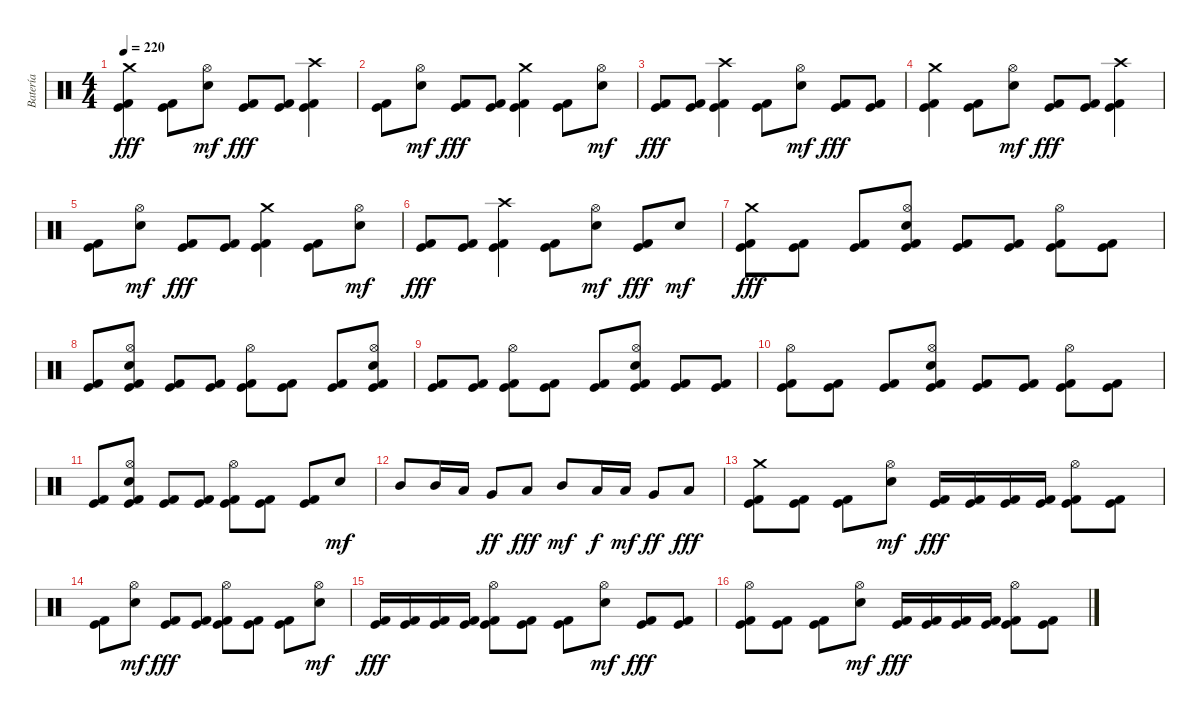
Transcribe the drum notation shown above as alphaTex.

\track ("Batería" "Batería") {instrument percussion}
\staff {score}
\articulation defaults
\ts (4 4)
\tempo 220
\clef neutral
\ks c
("Crash medium (hit)" "Kick (hit) 2" "Kick (hit)").4{dy fff} ("Kick (hit) 2" "Kick (hit)").8 ("Hi-Hat (open)" "Electric Snare (hit)").8{dy mf} ("Kick (hit) 2" "Kick (hit)").8{dy fff} ("Kick (hit) 2" "Kick (hit)").8 ("Crash high (hit)" "Kick (hit) 2" "Kick (hit)").4 |
("Kick (hit) 2" "Kick (hit)").8 ("Hi-Hat (open)" "Electric Snare (hit)").8{dy mf} ("Kick (hit) 2" "Kick (hit)").8{dy fff} ("Kick (hit) 2" "Kick (hit)").8 ("Crash medium (hit)" "Kick (hit) 2" "Kick (hit)").4 ("Kick (hit) 2" "Kick (hit)").8 ("Hi-Hat (open)" "Electric Snare (hit)").8{dy mf} |
("Kick (hit) 2" "Kick (hit)").8{dy fff} ("Kick (hit) 2" "Kick (hit)").8 ("Crash high (hit)" "Kick (hit) 2" "Kick (hit)").4 ("Kick (hit) 2" "Kick (hit)").8 ("Hi-Hat (open)" "Electric Snare (hit)").8{dy mf} ("Kick (hit) 2" "Kick (hit)").8{dy fff} ("Kick (hit) 2" "Kick (hit)").8 |
("Crash medium (hit)" "Kick (hit) 2" "Kick (hit)").4 ("Kick (hit) 2" "Kick (hit)").8 ("Hi-Hat (open)" "Electric Snare (hit)").8{dy mf} ("Kick (hit) 2" "Kick (hit)").8{dy fff} ("Kick (hit) 2" "Kick (hit)").8 ("Crash high (hit)" "Kick (hit) 2" "Kick (hit)").4 |
("Kick (hit) 2" "Kick (hit)").8 ("Hi-Hat (open)" "Electric Snare (hit)").8{dy mf} ("Kick (hit) 2" "Kick (hit)").8{dy fff} ("Kick (hit) 2" "Kick (hit)").8 ("Crash medium (hit)" "Kick (hit) 2" "Kick (hit)").4 ("Kick (hit) 2" "Kick (hit)").8 ("Hi-Hat (open)" "Electric Snare (hit)").8{dy mf} |
("Kick (hit) 2" "Kick (hit)").8{dy fff} ("Kick (hit) 2" "Kick (hit)").8 ("Crash high (hit)" "Kick (hit) 2" "Kick (hit)").4 ("Kick (hit) 2" "Kick (hit)").8 ("Hi-Hat (open)" "Electric Snare (hit)").8{dy mf} ("Kick (hit) 2" "Kick (hit)").8{dy fff} "Electric Snare (hit)".8{dy mf} |
("Crash medium (hit)" "Kick (hit) 2" "Kick (hit)").8{dy fff} ("Kick (hit) 2" "Kick (hit)").8 ("Kick (hit) 2" "Kick (hit)").8 ("Hi-Hat (open)" "Electric Snare (hit)" "Kick (hit) 2" "Kick (hit)").8 ("Kick (hit) 2" "Kick (hit)").8 ("Kick (hit) 2" "Kick (hit)").8 ("Hi-Hat (open)" "Kick (hit) 2" "Kick (hit)").8 ("Kick (hit) 2" "Kick (hit)").8 |
("Kick (hit) 2" "Kick (hit)").8 ("Hi-Hat (open)" "Electric Snare (hit)" "Kick (hit) 2" "Kick (hit)").8 ("Kick (hit) 2" "Kick (hit)").8 ("Kick (hit) 2" "Kick (hit)").8 ("Hi-Hat (open)" "Kick (hit) 2" "Kick (hit)").8 ("Kick (hit) 2" "Kick (hit)").8 ("Kick (hit) 2" "Kick (hit)").8 ("Hi-Hat (open)" "Electric Snare (hit)" "Kick (hit) 2" "Kick (hit)").8 |
("Kick (hit) 2" "Kick (hit)").8 ("Kick (hit) 2" "Kick (hit)").8 ("Hi-Hat (open)" "Kick (hit) 2" "Kick (hit)").8 ("Kick (hit) 2" "Kick (hit)").8 ("Kick (hit) 2" "Kick (hit)").8 ("Hi-Hat (open)" "Electric Snare (hit)" "Kick (hit) 2" "Kick (hit)").8 ("Kick (hit) 2" "Kick (hit)").8 ("Kick (hit) 2" "Kick (hit)").8 |
("Hi-Hat (open)" "Kick (hit) 2" "Kick (hit)").8 ("Kick (hit) 2" "Kick (hit)").8 ("Kick (hit) 2" "Kick (hit)").8 ("Hi-Hat (open)" "Electric Snare (hit)" "Kick (hit) 2" "Kick (hit)").8 ("Kick (hit) 2" "Kick (hit)").8 ("Kick (hit) 2" "Kick (hit)").8 ("Hi-Hat (open)" "Kick (hit) 2" "Kick (hit)").8 ("Kick (hit) 2" "Kick (hit)").8 |
("Kick (hit) 2" "Kick (hit)").8 ("Hi-Hat (open)" "Electric Snare (hit)" "Kick (hit) 2" "Kick (hit)").8 ("Kick (hit) 2" "Kick (hit)").8 ("Kick (hit) 2" "Kick (hit)").8 ("Hi-Hat (open)" "Kick (hit) 2" "Kick (hit)").8 ("Kick (hit) 2" "Kick (hit)").8 ("Kick (hit) 2" "Kick (hit)").8 "Electric Snare (hit)".8{dy mf} |
"Mid Tom (hit)".8 "Mid Tom (hit)".16 "Low Tom (hit)".16 "Very Low Tom (hit)".8{dy ff} "Low Floor Tom (hit)".8{dy fff} "Mid Tom (hit)".8{dy mf} "Low Tom (hit)".16{dy f} "Low Tom (hit)".16{dy mf} "Very Low Tom (hit)".8{dy ff} "Low Floor Tom (hit)".8{dy fff} |
("Crash medium (hit)" "Kick (hit) 2" "Kick (hit)").8 ("Kick (hit) 2" "Kick (hit)").8 ("Kick (hit) 2" "Kick (hit)").8 ("Hi-Hat (open)" "Electric Snare (hit)").8{dy mf} ("Kick (hit) 2" "Kick (hit)").16{dy fff} ("Kick (hit) 2" "Kick (hit)").16 ("Kick (hit) 2" "Kick (hit)").16 ("Kick (hit) 2" "Kick (hit)").16 ("Hi-Hat (open)" "Kick (hit) 2" "Kick (hit)").8 ("Kick (hit) 2" "Kick (hit)").8 |
("Kick (hit) 2" "Kick (hit)").8 ("Hi-Hat (open)" "Electric Snare (hit)").8{dy mf} ("Kick (hit) 2" "Kick (hit)").8{dy fff} ("Kick (hit) 2" "Kick (hit)").8 ("Hi-Hat (open)" "Kick (hit) 2" "Kick (hit)").8 ("Kick (hit) 2" "Kick (hit)").8 ("Kick (hit) 2" "Kick (hit)").8 ("Hi-Hat (open)" "Electric Snare (hit)").8{dy mf} |
("Kick (hit) 2" "Kick (hit)").16{dy fff} ("Kick (hit) 2" "Kick (hit)").16 ("Kick (hit) 2" "Kick (hit)").16 ("Kick (hit) 2" "Kick (hit)").16 ("Hi-Hat (open)" "Kick (hit) 2" "Kick (hit)").8 ("Kick (hit) 2" "Kick (hit)").8 ("Kick (hit) 2" "Kick (hit)").8 ("Hi-Hat (open)" "Electric Snare (hit)").8{dy mf} ("Kick (hit) 2" "Kick (hit)").8{dy fff} ("Kick (hit) 2" "Kick (hit)").8 |
("Hi-Hat (open)" "Kick (hit) 2" "Kick (hit)").8 ("Kick (hit) 2" "Kick (hit)").8 ("Kick (hit) 2" "Kick (hit)").8 ("Hi-Hat (open)" "Electric Snare (hit)").8{dy mf} ("Kick (hit) 2" "Kick (hit)").16{dy fff} ("Kick (hit) 2" "Kick (hit)").16 ("Kick (hit) 2" "Kick (hit)").16 ("Kick (hit) 2" "Kick (hit)").16 ("Hi-Hat (open)" "Kick (hit) 2" "Kick (hit)").8 ("Kick (hit) 2" "Kick (hit)").8
